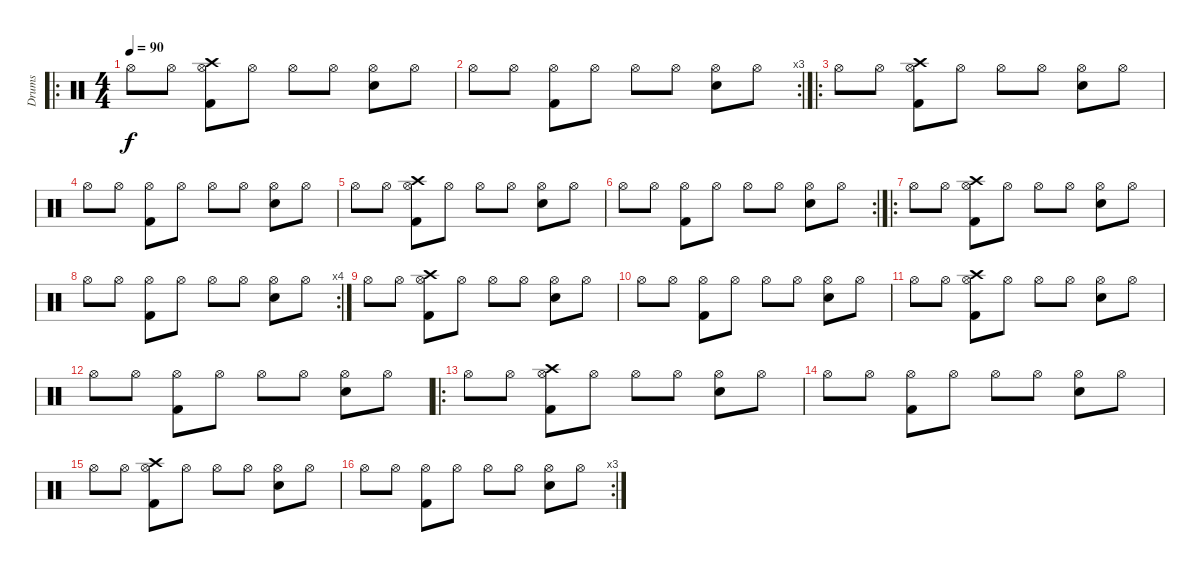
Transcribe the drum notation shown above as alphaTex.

\track ("Drums" "Drums") {instrument percussion}
\staff {score}
\articulation defaults
\ro
\ts (4 4)
\tempo 90
\clef neutral
\ks c "Hi-Hat (open)".8{dy f} "Hi-Hat (open)".8
("Crash high (hit)" "Kick (hit) 2" "Hi-Hat (open)").8 "Hi-Hat (open)".8 "Hi-Hat (open)".8 "Hi-Hat (open)".8 ("Snare (hit) 2" "Hi-Hat (open)").8 "Hi-Hat (open)".8 |
\rc 3 "Hi-Hat (open)".8 "Hi-Hat (open)".8
("Kick (hit) 2" "Hi-Hat (open)").8 "Hi-Hat (open)".8 "Hi-Hat (open)".8 "Hi-Hat (open)".8 ("Snare (hit) 2" "Hi-Hat (open)").8 "Hi-Hat (open)".8 |
\ro "Hi-Hat (open)".8 "Hi-Hat (open)".8
("Crash high (hit)" "Kick (hit) 2" "Hi-Hat (open)").8 "Hi-Hat (open)".8 "Hi-Hat (open)".8 "Hi-Hat (open)".8 ("Snare (hit) 2" "Hi-Hat (open)").8 "Hi-Hat (open)".8 |
"Hi-Hat (open)".8 "Hi-Hat (open)".8 ("Kick (hit) 2" "Hi-Hat (open)").8 "Hi-Hat (open)".8 "Hi-Hat (open)".8 "Hi-Hat (open)".8 ("Snare (hit) 2" "Hi-Hat (open)").8 "Hi-Hat (open)".8 |
"Hi-Hat (open)".8 "Hi-Hat (open)".8 ("Crash high (hit)" "Kick (hit) 2" "Hi-Hat (open)").8 "Hi-Hat (open)".8 "Hi-Hat (open)".8 "Hi-Hat (open)".8 ("Snare (hit) 2" "Hi-Hat (open)").8 "Hi-Hat (open)".8 |
\rc 2 "Hi-Hat (open)".8 "Hi-Hat (open)".8
("Kick (hit) 2" "Hi-Hat (open)").8 "Hi-Hat (open)".8 "Hi-Hat (open)".8 "Hi-Hat (open)".8 ("Snare (hit) 2" "Hi-Hat (open)").8 "Hi-Hat (open)".8 |
\ro "Hi-Hat (open)".8 "Hi-Hat (open)".8
("Crash high (hit)" "Kick (hit) 2" "Hi-Hat (open)").8 "Hi-Hat (open)".8 "Hi-Hat (open)".8 "Hi-Hat (open)".8 ("Snare (hit) 2" "Hi-Hat (open)").8 "Hi-Hat (open)".8 |
\rc 4 "Hi-Hat (open)".8 "Hi-Hat (open)".8
("Kick (hit) 2" "Hi-Hat (open)").8 "Hi-Hat (open)".8 "Hi-Hat (open)".8 "Hi-Hat (open)".8 ("Snare (hit) 2" "Hi-Hat (open)").8 "Hi-Hat (open)".8 |
"Hi-Hat (open)".8 "Hi-Hat (open)".8 ("Crash high (hit)" "Kick (hit) 2" "Hi-Hat (open)").8 "Hi-Hat (open)".8 "Hi-Hat (open)".8 "Hi-Hat (open)".8 ("Snare (hit) 2" "Hi-Hat (open)").8 "Hi-Hat (open)".8 |
"Hi-Hat (open)".8 "Hi-Hat (open)".8 ("Kick (hit) 2" "Hi-Hat (open)").8 "Hi-Hat (open)".8 "Hi-Hat (open)".8 "Hi-Hat (open)".8 ("Snare (hit) 2" "Hi-Hat (open)").8 "Hi-Hat (open)".8 |
"Hi-Hat (open)".8 "Hi-Hat (open)".8 ("Crash high (hit)" "Kick (hit) 2" "Hi-Hat (open)").8 "Hi-Hat (open)".8 "Hi-Hat (open)".8 "Hi-Hat (open)".8 ("Snare (hit) 2" "Hi-Hat (open)").8 "Hi-Hat (open)".8 |
"Hi-Hat (open)".8 "Hi-Hat (open)".8 ("Kick (hit) 2" "Hi-Hat (open)").8 "Hi-Hat (open)".8 "Hi-Hat (open)".8 "Hi-Hat (open)".8 ("Snare (hit) 2" "Hi-Hat (open)").8 "Hi-Hat (open)".8 |
\ro "Hi-Hat (open)".8 "Hi-Hat (open)".8
("Crash high (hit)" "Kick (hit) 2" "Hi-Hat (open)").8 "Hi-Hat (open)".8 "Hi-Hat (open)".8 "Hi-Hat (open)".8 ("Snare (hit) 2" "Hi-Hat (open)").8 "Hi-Hat (open)".8 |
"Hi-Hat (open)".8 "Hi-Hat (open)".8 ("Kick (hit) 2" "Hi-Hat (open)").8 "Hi-Hat (open)".8 "Hi-Hat (open)".8 "Hi-Hat (open)".8 ("Snare (hit) 2" "Hi-Hat (open)").8 "Hi-Hat (open)".8 |
"Hi-Hat (open)".8 "Hi-Hat (open)".8 ("Crash high (hit)" "Kick (hit) 2" "Hi-Hat (open)").8 "Hi-Hat (open)".8 "Hi-Hat (open)".8 "Hi-Hat (open)".8 ("Snare (hit) 2" "Hi-Hat (open)").8 "Hi-Hat (open)".8 |
\rc 3 "Hi-Hat (open)".8 "Hi-Hat (open)".8
("Kick (hit) 2" "Hi-Hat (open)").8 "Hi-Hat (open)".8 "Hi-Hat (open)".8 "Hi-Hat (open)".8 ("Snare (hit) 2" "Hi-Hat (open)").8 "Hi-Hat (open)".8
